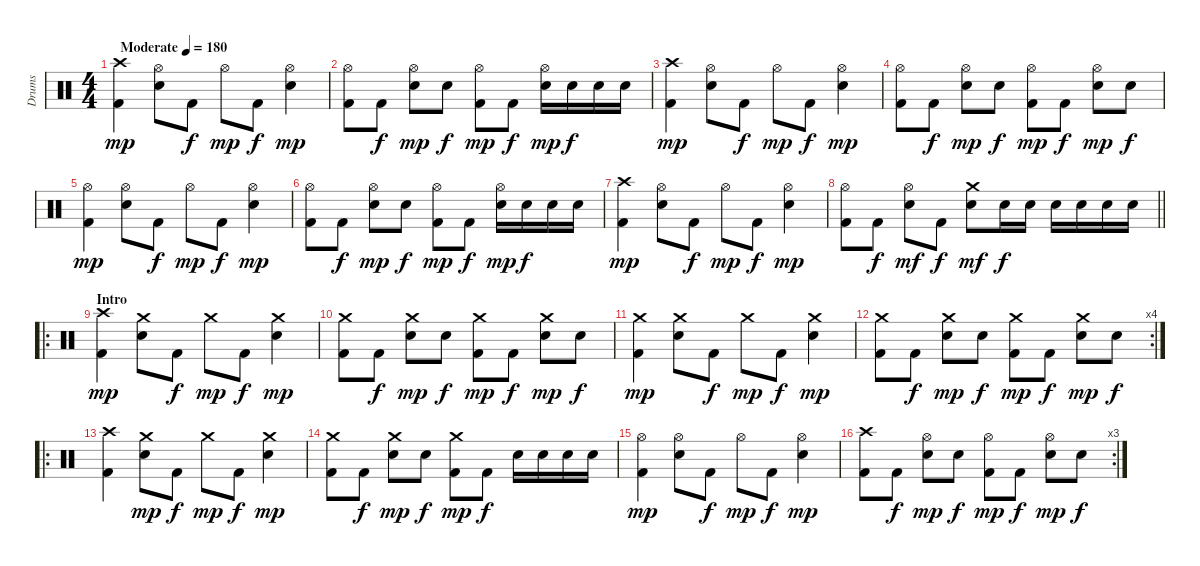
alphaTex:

\track ("Drums" "Drums") {instrument percussion}
\staff {score}
\articulation defaults
\ts (4 4)
\tempo (180 "Moderate")
\clef neutral
\ks c
("Crash high (hit)" "Kick (hit) 2").4{dy mp} ("Hi-Hat (open)" "Snare (hit) 2").8 "Kick (hit) 2".8{dy f} "Hi-Hat (open)".8{dy mp} "Kick (hit) 2".8{dy f} ("Hi-Hat (open)" "Snare (hit) 2").4{dy mp} |
("Hi-Hat (open)" "Kick (hit) 2").8 "Kick (hit) 2".8{dy f} ("Hi-Hat (open)" "Snare (hit) 2").8{dy mp} "Snare (hit) 2".8{dy f} ("Hi-Hat (open)" "Kick (hit) 2").8{dy mp} "Kick (hit) 2".8{dy f} ("Hi-Hat (open)" "Snare (hit) 2").16{dy mp} "Snare (hit) 2".16{dy f} "Snare (hit) 2".16 "Snare (hit) 2".16 |
("Crash high (hit)" "Kick (hit) 2").4{dy mp} ("Hi-Hat (open)" "Snare (hit) 2").8 "Kick (hit) 2".8{dy f} "Hi-Hat (open)".8{dy mp} "Kick (hit) 2".8{dy f} ("Hi-Hat (open)" "Snare (hit) 2").4{dy mp} |
("Hi-Hat (open)" "Kick (hit) 2").8 "Kick (hit) 2".8{dy f} ("Hi-Hat (open)" "Snare (hit) 2").8{dy mp} "Snare (hit) 2".8{dy f} ("Hi-Hat (open)" "Kick (hit) 2").8{dy mp} "Kick (hit) 2".8{dy f} ("Hi-Hat (open)" "Snare (hit) 2").8{dy mp} "Snare (hit) 2".8{dy f} |
("Hi-Hat (open)" "Kick (hit) 2").4{dy mp} ("Hi-Hat (open)" "Snare (hit) 2").8 "Kick (hit) 2".8{dy f} "Hi-Hat (open)".8{dy mp} "Kick (hit) 2".8{dy f} ("Hi-Hat (open)" "Snare (hit) 2").4{dy mp} |
("Hi-Hat (open)" "Kick (hit) 2").8 "Kick (hit) 2".8{dy f} ("Hi-Hat (open)" "Snare (hit) 2").8{dy mp} "Snare (hit) 2".8{dy f} ("Hi-Hat (open)" "Kick (hit) 2").8{dy mp} "Kick (hit) 2".8{dy f} ("Hi-Hat (open)" "Snare (hit) 2").16{dy mp} "Snare (hit) 2".16{dy f} "Snare (hit) 2".16 "Snare (hit) 2".16 |
("Crash high (hit)" "Kick (hit) 2").4{dy mp} ("Hi-Hat (open)" "Snare (hit) 2").8 "Kick (hit) 2".8{dy f} "Hi-Hat (open)".8{dy mp} "Kick (hit) 2".8{dy f} ("Hi-Hat (open)" "Snare (hit) 2").4{dy mp} |
\barLineRight lightlight
("Hi-Hat (open)" "Kick (hit) 2").8 "Kick (hit) 2".8{dy f} ("Hi-Hat (open)" "Snare (hit) 2").8{dy mf} "Kick (hit) 2".8{dy f} ("Crash medium (hit)" "Snare (hit) 2").8{dy mf} "Snare (hit) 2".16{dy f} "Snare (hit) 2".16 "Snare (hit) 2".16 "Snare (hit) 2".16 "Snare (hit) 2".16 "Snare (hit) 2".16 |
\ro
\section ("" "Intro")
("Crash high (hit)" "Kick (hit) 2").4{dy mp} ("Crash medium (hit)" "Snare (hit) 2").8 "Kick (hit) 2".8{dy f} "Crash medium (hit)".8{dy mp} "Kick (hit) 2".8{dy f} ("Crash medium (hit)" "Snare (hit) 2").4{dy mp} |
("Crash medium (hit)" "Kick (hit) 2").8 "Kick (hit) 2".8{dy f} ("Crash medium (hit)" "Snare (hit) 2").8{dy mp} "Snare (hit) 2".8{dy f} ("Crash medium (hit)" "Kick (hit) 2").8{dy mp} "Kick (hit) 2".8{dy f} ("Crash medium (hit)" "Snare (hit) 2").8{dy mp} "Snare (hit) 2".8{dy f} |
("Crash medium (hit)" "Kick (hit) 2").4{dy mp} ("Crash medium (hit)" "Snare (hit) 2").8 "Kick (hit) 2".8{dy f} "Crash medium (hit)".8{dy mp} "Kick (hit) 2".8{dy f} ("Crash medium (hit)" "Snare (hit) 2").4{dy mp} |
\rc 4
("Crash medium (hit)" "Kick (hit) 2").8 "Kick (hit) 2".8{dy f} ("Crash medium (hit)" "Snare (hit) 2").8{dy mp} "Snare (hit) 2".8{dy f} ("Crash medium (hit)" "Kick (hit) 2").8{dy mp} "Kick (hit) 2".8{dy f} ("Crash medium (hit)" "Snare (hit) 2").8{dy mp} "Snare (hit) 2".8{dy f} |
\ro
("Crash high (hit)" "Kick (hit) 2").4 ("Crash medium (hit)" "Snare (hit) 2").8{dy mp} "Kick (hit) 2".8{dy f} "Crash medium (hit)".8{dy mp} "Kick (hit) 2".8{dy f} ("Crash medium (hit)" "Snare (hit) 2").4{dy mp} |
("Crash medium (hit)" "Kick (hit) 2").8 "Kick (hit) 2".8{dy f} ("Crash medium (hit)" "Snare (hit) 2").8{dy mp} "Snare (hit) 2".8{dy f} ("Crash medium (hit)" "Kick (hit) 2").8{dy mp} "Kick (hit) 2".8{dy f} "Snare (hit) 2".16 "Snare (hit) 2".16 "Snare (hit) 2".16 "Snare (hit) 2".16 |
("Hi-Hat (open)" "Kick (hit) 2").4{dy mp} ("Hi-Hat (open)" "Snare (hit) 2").8 "Kick (hit) 2".8{dy f} "Hi-Hat (open)".8{dy mp} "Kick (hit) 2".8{dy f} ("Hi-Hat (open)" "Snare (hit) 2").4{dy mp} |
\rc 3
("Crash high (hit)" "Kick (hit) 2").8 "Kick (hit) 2".8{dy f} ("Hi-Hat (open)" "Snare (hit) 2").8{dy mp} "Snare (hit) 2".8{dy f} ("Hi-Hat (open)" "Kick (hit) 2").8{dy mp} "Kick (hit) 2".8{dy f} ("Hi-Hat (open)" "Snare (hit) 2").8{dy mp} "Snare (hit) 2".8{dy f}
